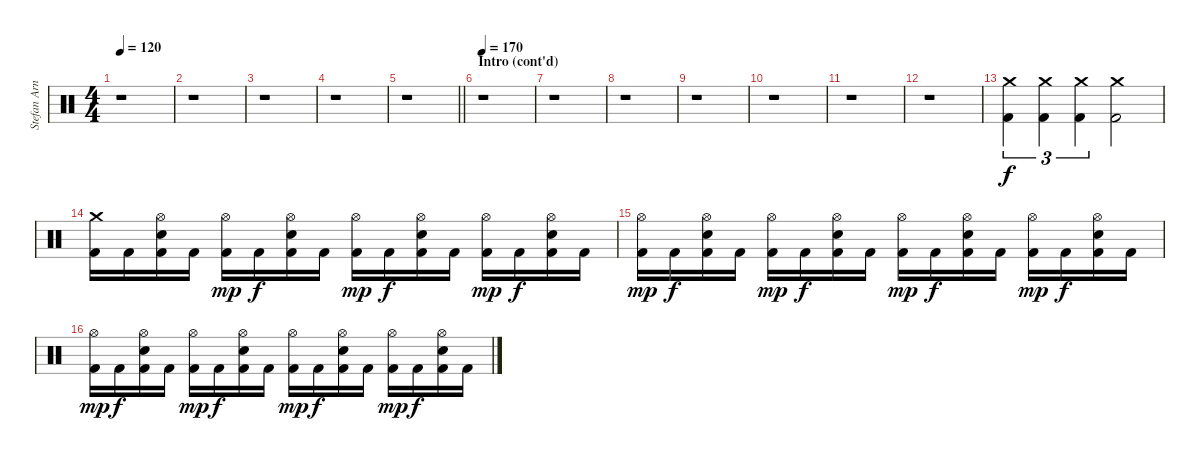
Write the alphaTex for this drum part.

\track ("Stefan Arnold" "Stefan Arn") {instrument percussion}
\staff {score}
\articulation defaults
\ts (4 4)
\tempo 120
\clef neutral
\ks c
r.1{dy f} |
r.1 |
r.1 |
r.1 |
\barLineRight lightlight
r.1 |
\section ("" "Intro (cont'd)")
\tempo 170
r.1 |
r.1 |
r.1 |
r.1 |
r.1 |
r.1 |
r.1 |
("Crash medium (hit)" "Kick (hit) 2").4{tu (3 2)} ("Crash medium (hit)" "Kick (hit) 2").4{tu (3 2)} ("Crash medium (hit)" "Kick (hit) 2").4{tu (3 2)} ("Crash medium (hit)" "Kick (hit) 2").2 |
("Crash medium (hit)" "Kick (hit) 2").16 "Kick (hit) 2".16 ("Hi-Hat (open)" "Electric Snare (hit)" "Kick (hit) 2").16 "Kick (hit) 2".16 ("Hi-Hat (open)" "Kick (hit) 2").16{dy mp} "Kick (hit) 2".16{dy f} ("Hi-Hat (open)" "Electric Snare (hit)" "Kick (hit) 2").16 "Kick (hit) 2".16 ("Hi-Hat (open)" "Kick (hit) 2").16{dy mp} "Kick (hit) 2".16{dy f} ("Hi-Hat (open)" "Electric Snare (hit)" "Kick (hit) 2").16 "Kick (hit) 2".16 ("Hi-Hat (open)" "Kick (hit) 2").16{dy mp} "Kick (hit) 2".16{dy f} ("Hi-Hat (open)" "Electric Snare (hit)" "Kick (hit) 2").16 "Kick (hit) 2".16 |
("Hi-Hat (open)" "Kick (hit) 2").16{dy mp} "Kick (hit) 2".16{dy f} ("Hi-Hat (open)" "Electric Snare (hit)" "Kick (hit) 2").16 "Kick (hit) 2".16 ("Hi-Hat (open)" "Kick (hit) 2").16{dy mp} "Kick (hit) 2".16{dy f} ("Hi-Hat (open)" "Electric Snare (hit)" "Kick (hit) 2").16 "Kick (hit) 2".16 ("Hi-Hat (open)" "Kick (hit) 2").16{dy mp} "Kick (hit) 2".16{dy f} ("Hi-Hat (open)" "Electric Snare (hit)" "Kick (hit) 2").16 "Kick (hit) 2".16 ("Hi-Hat (open)" "Kick (hit) 2").16{dy mp} "Kick (hit) 2".16{dy f} ("Hi-Hat (open)" "Electric Snare (hit)" "Kick (hit) 2").16 "Kick (hit) 2".16 |
("Hi-Hat (open)" "Kick (hit) 2").16{dy mp} "Kick (hit) 2".16{dy f} ("Hi-Hat (open)" "Electric Snare (hit)" "Kick (hit) 2").16 "Kick (hit) 2".16 ("Hi-Hat (open)" "Kick (hit) 2").16{dy mp} "Kick (hit) 2".16{dy f} ("Hi-Hat (open)" "Electric Snare (hit)" "Kick (hit) 2").16 "Kick (hit) 2".16 ("Hi-Hat (open)" "Kick (hit) 2").16{dy mp} "Kick (hit) 2".16{dy f} ("Hi-Hat (open)" "Electric Snare (hit)" "Kick (hit) 2").16 "Kick (hit) 2".16 ("Hi-Hat (open)" "Kick (hit) 2").16{dy mp} "Kick (hit) 2".16{dy f} ("Hi-Hat (open)" "Electric Snare (hit)" "Kick (hit) 2").16 "Kick (hit) 2".16
